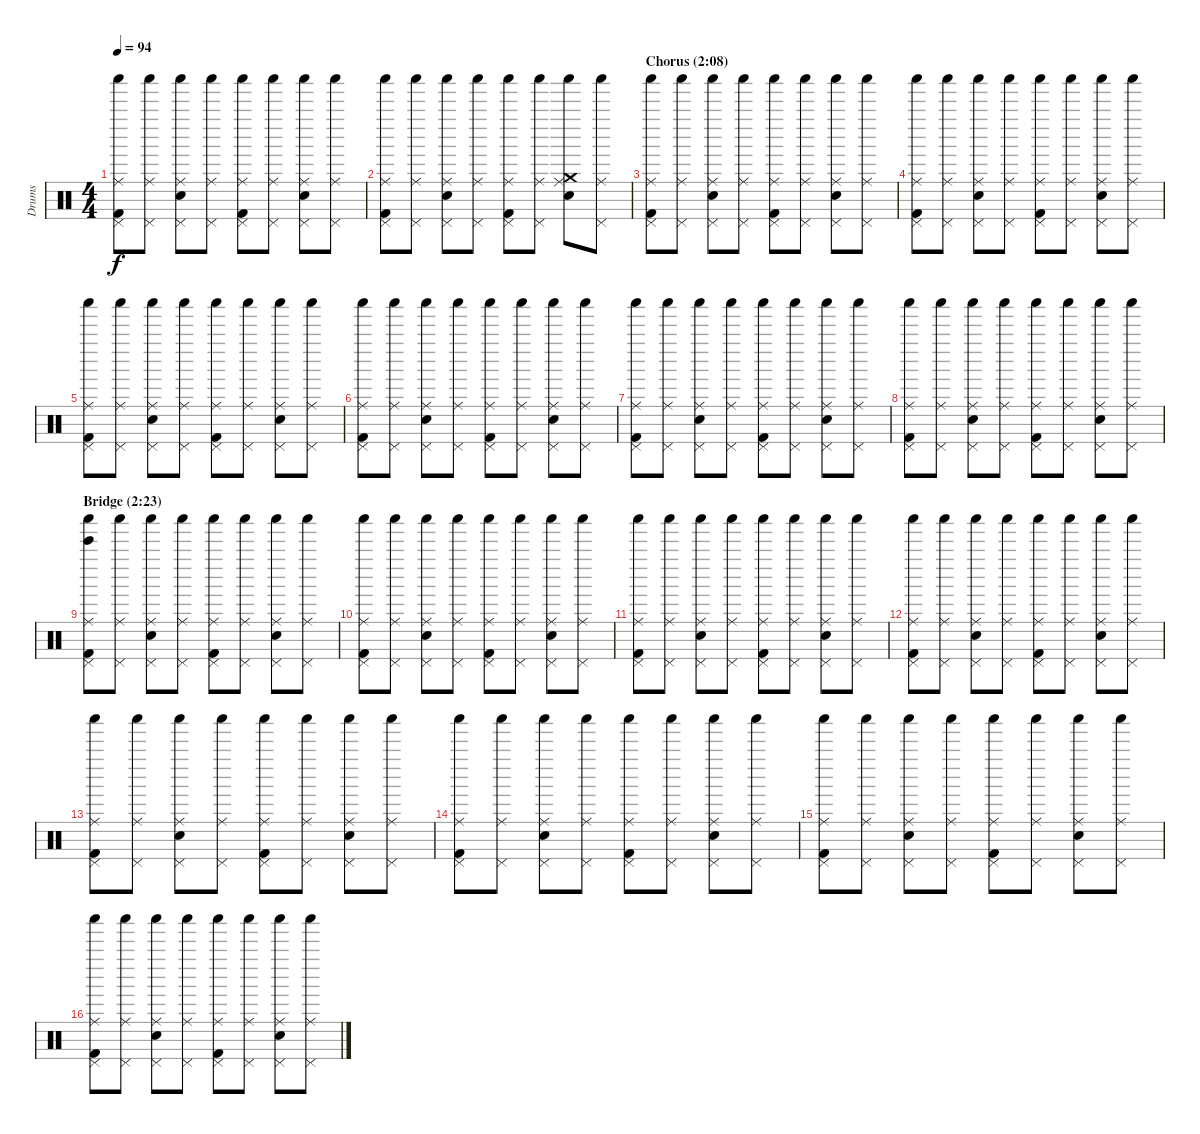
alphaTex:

\track ("Drums" "Drums") {instrument percussion}
\staff {score}
\articulation defaults
\ts (4 4)
\tempo 94
\clef neutral
\ks c
("Pedal Hi-Hat (hit)" "Ride (middle)" "Shaker (hit)" "Kick (hit) 2").8{dy f} ("Pedal Hi-Hat (hit)" "Ride (middle)" "Shaker (hit)").8 ("Pedal Hi-Hat (hit)" "Ride (middle)" "Shaker (hit)" "Snare (hit) 2").8 ("Pedal Hi-Hat (hit)" "Ride (middle)" "Shaker (hit)").8 ("Pedal Hi-Hat (hit)" "Ride (middle)" "Shaker (hit)" "Kick (hit) 2").8 ("Pedal Hi-Hat (hit)" "Ride (middle)" "Shaker (hit)").8 ("Pedal Hi-Hat (hit)" "Ride (middle)" "Shaker (hit)" "Snare (hit) 2").8 ("Pedal Hi-Hat (hit)" "Ride (middle)" "Shaker (hit)").8 |
("Pedal Hi-Hat (hit)" "Ride (middle)" "Shaker (hit)" "Kick (hit) 2").8 ("Pedal Hi-Hat (hit)" "Ride (middle)" "Shaker (hit)").8 ("Pedal Hi-Hat (hit)" "Ride (middle)" "Shaker (hit)" "Snare (hit) 2").8 ("Pedal Hi-Hat (hit)" "Ride (middle)" "Shaker (hit)").8 ("Pedal Hi-Hat (hit)" "Ride (middle)" "Shaker (hit)" "Kick (hit) 2").8 ("Pedal Hi-Hat (hit)" "Ride (middle)" "Shaker (hit)").8 ("Crash medium (hit)" "Ride (middle)" "Shaker (hit)" "Snare (hit) 2").8 ("Pedal Hi-Hat (hit)" "Ride (middle)" "Shaker (hit)").8 |
\section ("" "Chorus (2:08)")
("Pedal Hi-Hat (hit)" "Ride (middle)" "Shaker (hit)" "Kick (hit) 2").8 ("Pedal Hi-Hat (hit)" "Ride (middle)" "Shaker (hit)").8 ("Pedal Hi-Hat (hit)" "Ride (middle)" "Shaker (hit)" "Snare (hit) 2").8 ("Pedal Hi-Hat (hit)" "Ride (middle)" "Shaker (hit)").8 ("Pedal Hi-Hat (hit)" "Ride (middle)" "Shaker (hit)" "Kick (hit) 2").8 ("Pedal Hi-Hat (hit)" "Ride (middle)" "Shaker (hit)").8 ("Pedal Hi-Hat (hit)" "Ride (middle)" "Shaker (hit)" "Snare (hit) 2").8 ("Pedal Hi-Hat (hit)" "Ride (middle)" "Shaker (hit)").8 |
("Pedal Hi-Hat (hit)" "Ride (middle)" "Shaker (hit)" "Kick (hit) 2").8 ("Pedal Hi-Hat (hit)" "Ride (middle)" "Shaker (hit)").8 ("Pedal Hi-Hat (hit)" "Ride (middle)" "Shaker (hit)" "Snare (hit) 2").8 ("Pedal Hi-Hat (hit)" "Ride (middle)" "Shaker (hit)").8 ("Pedal Hi-Hat (hit)" "Ride (middle)" "Shaker (hit)" "Kick (hit) 2").8 ("Pedal Hi-Hat (hit)" "Ride (middle)" "Shaker (hit)").8 ("Pedal Hi-Hat (hit)" "Ride (middle)" "Shaker (hit)" "Snare (hit) 2").8 ("Pedal Hi-Hat (hit)" "Ride (middle)" "Shaker (hit)").8 |
("Pedal Hi-Hat (hit)" "Ride (middle)" "Shaker (hit)" "Kick (hit) 2").8 ("Pedal Hi-Hat (hit)" "Ride (middle)" "Shaker (hit)").8 ("Pedal Hi-Hat (hit)" "Ride (middle)" "Shaker (hit)" "Snare (hit) 2").8 ("Pedal Hi-Hat (hit)" "Ride (middle)" "Shaker (hit)").8 ("Pedal Hi-Hat (hit)" "Ride (middle)" "Shaker (hit)" "Kick (hit) 2").8 ("Pedal Hi-Hat (hit)" "Ride (middle)" "Shaker (hit)").8 ("Pedal Hi-Hat (hit)" "Ride (middle)" "Shaker (hit)" "Snare (hit) 2").8 ("Pedal Hi-Hat (hit)" "Ride (middle)" "Shaker (hit)").8 |
("Pedal Hi-Hat (hit)" "Ride (middle)" "Shaker (hit)" "Kick (hit) 2").8 ("Pedal Hi-Hat (hit)" "Ride (middle)" "Shaker (hit)").8 ("Pedal Hi-Hat (hit)" "Ride (middle)" "Shaker (hit)" "Snare (hit) 2").8 ("Pedal Hi-Hat (hit)" "Ride (middle)" "Shaker (hit)").8 ("Pedal Hi-Hat (hit)" "Ride (middle)" "Shaker (hit)" "Kick (hit) 2").8 ("Pedal Hi-Hat (hit)" "Ride (middle)" "Shaker (hit)").8 ("Pedal Hi-Hat (hit)" "Ride (middle)" "Shaker (hit)" "Snare (hit) 2").8 ("Pedal Hi-Hat (hit)" "Ride (middle)" "Shaker (hit)").8 |
("Pedal Hi-Hat (hit)" "Ride (middle)" "Shaker (hit)" "Kick (hit) 2").8 ("Pedal Hi-Hat (hit)" "Ride (middle)" "Shaker (hit)").8 ("Pedal Hi-Hat (hit)" "Ride (middle)" "Shaker (hit)" "Snare (hit) 2").8 ("Pedal Hi-Hat (hit)" "Ride (middle)" "Shaker (hit)").8 ("Pedal Hi-Hat (hit)" "Ride (middle)" "Shaker (hit)" "Kick (hit) 2").8 ("Pedal Hi-Hat (hit)" "Ride (middle)" "Shaker (hit)").8 ("Pedal Hi-Hat (hit)" "Ride (middle)" "Shaker (hit)" "Snare (hit) 2").8 ("Pedal Hi-Hat (hit)" "Ride (middle)" "Shaker (hit)").8 |
("Pedal Hi-Hat (hit)" "Ride (middle)" "Shaker (hit)" "Kick (hit) 2").8 ("Pedal Hi-Hat (hit)" "Ride (middle)" "Shaker (hit)").8 ("Pedal Hi-Hat (hit)" "Ride (middle)" "Shaker (hit)" "Snare (hit) 2").8 ("Pedal Hi-Hat (hit)" "Ride (middle)" "Shaker (hit)").8 ("Pedal Hi-Hat (hit)" "Ride (middle)" "Shaker (hit)" "Kick (hit) 2").8 ("Pedal Hi-Hat (hit)" "Ride (middle)" "Shaker (hit)").8 ("Pedal Hi-Hat (hit)" "Ride (middle)" "Shaker (hit)" "Snare (hit) 2").8 ("Pedal Hi-Hat (hit)" "Ride (middle)" "Shaker (hit)").8 |
\section ("" "Bridge (2:23)")
("Pedal Hi-Hat (hit)" "Ride (middle)" "Shaker (hit)" "Bell Tree (hit)" "Kick (hit) 2").8 ("Pedal Hi-Hat (hit)" "Ride (middle)" "Shaker (hit)").8 ("Pedal Hi-Hat (hit)" "Ride (middle)" "Shaker (hit)" "Snare (hit) 2").8 ("Pedal Hi-Hat (hit)" "Ride (middle)" "Shaker (hit)").8 ("Pedal Hi-Hat (hit)" "Ride (middle)" "Shaker (hit)" "Kick (hit) 2").8 ("Pedal Hi-Hat (hit)" "Ride (middle)" "Shaker (hit)").8 ("Pedal Hi-Hat (hit)" "Ride (middle)" "Shaker (hit)" "Snare (hit) 2").8 ("Pedal Hi-Hat (hit)" "Ride (middle)" "Shaker (hit)").8 |
("Pedal Hi-Hat (hit)" "Ride (middle)" "Shaker (hit)" "Kick (hit) 2").8 ("Pedal Hi-Hat (hit)" "Ride (middle)" "Shaker (hit)").8 ("Pedal Hi-Hat (hit)" "Ride (middle)" "Shaker (hit)" "Snare (hit) 2").8 ("Pedal Hi-Hat (hit)" "Ride (middle)" "Shaker (hit)").8 ("Pedal Hi-Hat (hit)" "Ride (middle)" "Shaker (hit)" "Kick (hit) 2").8 ("Pedal Hi-Hat (hit)" "Ride (middle)" "Shaker (hit)").8 ("Pedal Hi-Hat (hit)" "Ride (middle)" "Shaker (hit)" "Snare (hit) 2").8 ("Pedal Hi-Hat (hit)" "Ride (middle)" "Shaker (hit)").8 |
("Pedal Hi-Hat (hit)" "Ride (middle)" "Shaker (hit)" "Kick (hit) 2").8 ("Pedal Hi-Hat (hit)" "Ride (middle)" "Shaker (hit)").8 ("Pedal Hi-Hat (hit)" "Ride (middle)" "Shaker (hit)" "Snare (hit) 2").8 ("Pedal Hi-Hat (hit)" "Ride (middle)" "Shaker (hit)").8 ("Pedal Hi-Hat (hit)" "Ride (middle)" "Shaker (hit)" "Kick (hit) 2").8 ("Pedal Hi-Hat (hit)" "Ride (middle)" "Shaker (hit)").8 ("Pedal Hi-Hat (hit)" "Ride (middle)" "Shaker (hit)" "Snare (hit) 2").8 ("Pedal Hi-Hat (hit)" "Ride (middle)" "Shaker (hit)").8 |
("Pedal Hi-Hat (hit)" "Ride (middle)" "Shaker (hit)" "Kick (hit) 2").8 ("Pedal Hi-Hat (hit)" "Ride (middle)" "Shaker (hit)").8 ("Pedal Hi-Hat (hit)" "Ride (middle)" "Shaker (hit)" "Snare (hit) 2").8 ("Pedal Hi-Hat (hit)" "Ride (middle)" "Shaker (hit)").8 ("Pedal Hi-Hat (hit)" "Ride (middle)" "Shaker (hit)" "Kick (hit) 2").8 ("Pedal Hi-Hat (hit)" "Ride (middle)" "Shaker (hit)").8 ("Pedal Hi-Hat (hit)" "Ride (middle)" "Shaker (hit)" "Snare (hit) 2").8 ("Pedal Hi-Hat (hit)" "Ride (middle)" "Shaker (hit)").8 |
("Pedal Hi-Hat (hit)" "Ride (middle)" "Shaker (hit)" "Kick (hit) 2").8 ("Pedal Hi-Hat (hit)" "Ride (middle)" "Shaker (hit)").8 ("Pedal Hi-Hat (hit)" "Ride (middle)" "Shaker (hit)" "Snare (hit) 2").8 ("Pedal Hi-Hat (hit)" "Ride (middle)" "Shaker (hit)").8 ("Pedal Hi-Hat (hit)" "Ride (middle)" "Shaker (hit)" "Kick (hit) 2").8 ("Pedal Hi-Hat (hit)" "Ride (middle)" "Shaker (hit)").8 ("Pedal Hi-Hat (hit)" "Ride (middle)" "Shaker (hit)" "Snare (hit) 2").8 ("Pedal Hi-Hat (hit)" "Ride (middle)" "Shaker (hit)").8 |
("Pedal Hi-Hat (hit)" "Ride (middle)" "Shaker (hit)" "Kick (hit) 2").8 ("Pedal Hi-Hat (hit)" "Ride (middle)" "Shaker (hit)").8 ("Pedal Hi-Hat (hit)" "Ride (middle)" "Shaker (hit)" "Snare (hit) 2").8 ("Pedal Hi-Hat (hit)" "Ride (middle)" "Shaker (hit)").8 ("Pedal Hi-Hat (hit)" "Ride (middle)" "Shaker (hit)" "Kick (hit) 2").8 ("Pedal Hi-Hat (hit)" "Ride (middle)" "Shaker (hit)").8 ("Pedal Hi-Hat (hit)" "Ride (middle)" "Shaker (hit)" "Snare (hit) 2").8 ("Pedal Hi-Hat (hit)" "Ride (middle)" "Shaker (hit)").8 |
("Pedal Hi-Hat (hit)" "Ride (middle)" "Shaker (hit)" "Kick (hit) 2").8 ("Pedal Hi-Hat (hit)" "Ride (middle)" "Shaker (hit)").8 ("Pedal Hi-Hat (hit)" "Ride (middle)" "Shaker (hit)" "Snare (hit) 2").8 ("Pedal Hi-Hat (hit)" "Ride (middle)" "Shaker (hit)").8 ("Pedal Hi-Hat (hit)" "Ride (middle)" "Shaker (hit)" "Kick (hit) 2").8 ("Pedal Hi-Hat (hit)" "Ride (middle)" "Shaker (hit)").8 ("Pedal Hi-Hat (hit)" "Ride (middle)" "Shaker (hit)" "Snare (hit) 2").8 ("Pedal Hi-Hat (hit)" "Ride (middle)" "Shaker (hit)").8 |
("Pedal Hi-Hat (hit)" "Ride (middle)" "Shaker (hit)" "Kick (hit) 2").8 ("Pedal Hi-Hat (hit)" "Ride (middle)" "Shaker (hit)").8 ("Pedal Hi-Hat (hit)" "Ride (middle)" "Shaker (hit)" "Snare (hit) 2").8 ("Pedal Hi-Hat (hit)" "Ride (middle)" "Shaker (hit)").8 ("Pedal Hi-Hat (hit)" "Ride (middle)" "Shaker (hit)" "Kick (hit) 2").8 ("Pedal Hi-Hat (hit)" "Ride (middle)" "Shaker (hit)").8 ("Pedal Hi-Hat (hit)" "Ride (middle)" "Shaker (hit)" "Snare (hit) 2").8 ("Pedal Hi-Hat (hit)" "Ride (middle)" "Shaker (hit)").8
